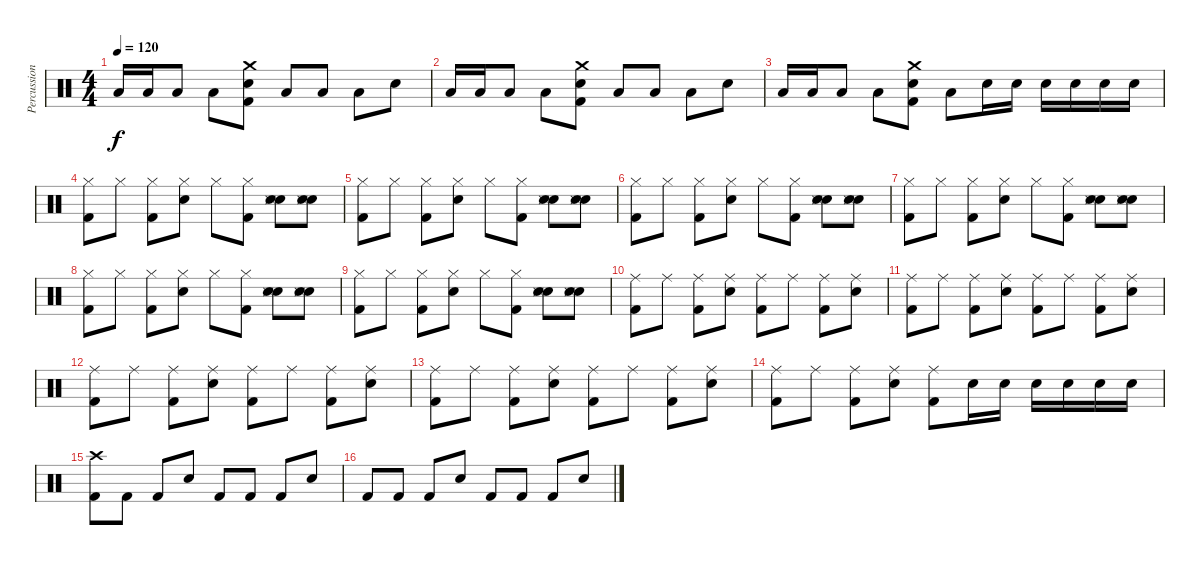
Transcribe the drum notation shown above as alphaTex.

\track ("Percussions" "Percussion") {instrument percussion}
\staff {score}
\articulation defaults
\ts (4 4)
\tempo 120
\clef neutral
\ks c "Low Tom (hit)".16{dy f} "Low Tom (hit)".16 "Low Tom (hit)".8 "Low Tom (hit)".8
("Crash medium (hit)" "Electric Snare (hit)" "Kick (hit) 2").8 "Low Tom (hit)".8 "Low Tom (hit)".8 "Low Tom (hit)".8 "Electric Snare (hit)".8 |
"Low Tom (hit)".16 "Low Tom (hit)".16 "Low Tom (hit)".8 "Low Tom (hit)".8 ("Crash medium (hit)" "Electric Snare (hit)" "Kick (hit) 2").8 "Low Tom (hit)".8 "Low Tom (hit)".8 "Low Tom (hit)".8 "Electric Snare (hit)".8 |
"Low Tom (hit)".16 "Low Tom (hit)".16 "Low Tom (hit)".8 "Low Tom (hit)".8 ("Crash medium (hit)" "Electric Snare (hit)" "Kick (hit) 2").8 "Low Tom (hit)".8 "Electric Snare (hit)".16 "Electric Snare (hit)".16 "Electric Snare (hit)".16 "Electric Snare (hit)".16 "Electric Snare (hit)".16 "Electric Snare (hit)".16 |
("Hi-Hat (closed)" "Kick (hit) 2").8 "Hi-Hat (closed)".8 ("Hi-Hat (closed)" "Kick (hit) 2").8 ("Hi-Hat (closed)" "Electric Snare (hit)").8 "Hi-Hat (closed)".8 ("Hi-Hat (closed)" "Kick (hit) 2").8 ("Hand Clap (hit)" "Hand Clap (hit)" "Snare (side stick) 3").8 ("Hand Clap (hit)" "Hand Clap (hit)" "Snare (side stick) 3").8 |
("Hi-Hat (closed)" "Kick (hit) 2").8 "Hi-Hat (closed)".8 ("Hi-Hat (closed)" "Kick (hit) 2").8 ("Hi-Hat (closed)" "Electric Snare (hit)").8 "Hi-Hat (closed)".8 ("Hi-Hat (closed)" "Kick (hit) 2").8 ("Hand Clap (hit)" "Hand Clap (hit)" "Snare (side stick) 3").8 ("Hand Clap (hit)" "Hand Clap (hit)" "Snare (side stick) 3").8 |
("Hi-Hat (closed)" "Kick (hit) 2").8 "Hi-Hat (closed)".8 ("Hi-Hat (closed)" "Kick (hit) 2").8 ("Hi-Hat (closed)" "Electric Snare (hit)").8 "Hi-Hat (closed)".8 ("Hi-Hat (closed)" "Kick (hit) 2").8 ("Hand Clap (hit)" "Hand Clap (hit)" "Snare (side stick) 3").8 ("Hand Clap (hit)" "Hand Clap (hit)" "Snare (side stick) 3").8 |
("Hi-Hat (closed)" "Kick (hit) 2").8 "Hi-Hat (closed)".8 ("Hi-Hat (closed)" "Kick (hit) 2").8 ("Hi-Hat (closed)" "Electric Snare (hit)").8 "Hi-Hat (closed)".8 ("Hi-Hat (closed)" "Kick (hit) 2").8 ("Hand Clap (hit)" "Hand Clap (hit)" "Snare (side stick) 3").8 ("Hand Clap (hit)" "Hand Clap (hit)" "Snare (side stick) 3").8 |
("Hi-Hat (closed)" "Kick (hit) 2").8 "Hi-Hat (closed)".8 ("Hi-Hat (closed)" "Kick (hit) 2").8 ("Hi-Hat (closed)" "Electric Snare (hit)").8 "Hi-Hat (closed)".8 ("Hi-Hat (closed)" "Kick (hit) 2").8 ("Hand Clap (hit)" "Hand Clap (hit)" "Snare (side stick) 3").8 ("Hand Clap (hit)" "Hand Clap (hit)" "Snare (side stick) 3").8 |
("Hi-Hat (closed)" "Kick (hit) 2").8 "Hi-Hat (closed)".8 ("Hi-Hat (closed)" "Kick (hit) 2").8 ("Hi-Hat (closed)" "Electric Snare (hit)").8 "Hi-Hat (closed)".8 ("Hi-Hat (closed)" "Kick (hit) 2").8 ("Hand Clap (hit)" "Hand Clap (hit)" "Snare (side stick) 3").8 ("Hand Clap (hit)" "Hand Clap (hit)" "Snare (side stick) 3").8 |
("Ride (middle)" "Kick (hit) 2").8 "Ride (middle)".8 ("Ride (middle)" "Kick (hit) 2").8 ("Ride (middle)" "Electric Snare (hit)").8 ("Ride (middle)" "Kick (hit) 2").8 "Ride (middle)".8 ("Ride (middle)" "Kick (hit) 2").8 ("Ride (middle)" "Electric Snare (hit)").8 |
("Ride (middle)" "Kick (hit) 2").8 "Ride (middle)".8 ("Ride (middle)" "Kick (hit) 2").8 ("Ride (middle)" "Electric Snare (hit)").8 ("Ride (middle)" "Kick (hit) 2").8 "Ride (middle)".8 ("Ride (middle)" "Kick (hit) 2").8 ("Ride (middle)" "Electric Snare (hit)").8 |
("Ride (middle)" "Kick (hit) 2").8 "Ride (middle)".8 ("Ride (middle)" "Kick (hit) 2").8 ("Ride (middle)" "Electric Snare (hit)").8 ("Ride (middle)" "Kick (hit) 2").8 "Ride (middle)".8 ("Ride (middle)" "Kick (hit) 2").8 ("Ride (middle)" "Electric Snare (hit)").8 |
("Ride (middle)" "Kick (hit) 2").8 "Ride (middle)".8 ("Ride (middle)" "Kick (hit) 2").8 ("Ride (middle)" "Electric Snare (hit)").8 ("Ride (middle)" "Kick (hit) 2").8 "Ride (middle)".8 ("Ride (middle)" "Kick (hit) 2").8 ("Ride (middle)" "Electric Snare (hit)").8 |
("Ride (middle)" "Kick (hit) 2").8 "Ride (middle)".8 ("Ride (middle)" "Kick (hit) 2").8 ("Ride (middle)" "Electric Snare (hit)").8 ("Ride (middle)" "Kick (hit) 2").8 "Electric Snare (hit)".16 "Electric Snare (hit)".16 "Electric Snare (hit)".16 "Electric Snare (hit)".16 "Electric Snare (hit)".16 "Electric Snare (hit)".16 |
("Crash high (hit)" "Kick (hit) 2").8 "Kick (hit) 2".8 "Kick (hit) 2".8 "Electric Snare (hit)".8 "Kick (hit) 2".8 "Kick (hit) 2".8 "Kick (hit) 2".8 "Electric Snare (hit)".8 |
"Kick (hit) 2".8 "Kick (hit) 2".8 "Kick (hit) 2".8 "Electric Snare (hit)".8 "Kick (hit) 2".8 "Kick (hit) 2".8 "Kick (hit) 2".8 "Electric Snare (hit)".8
